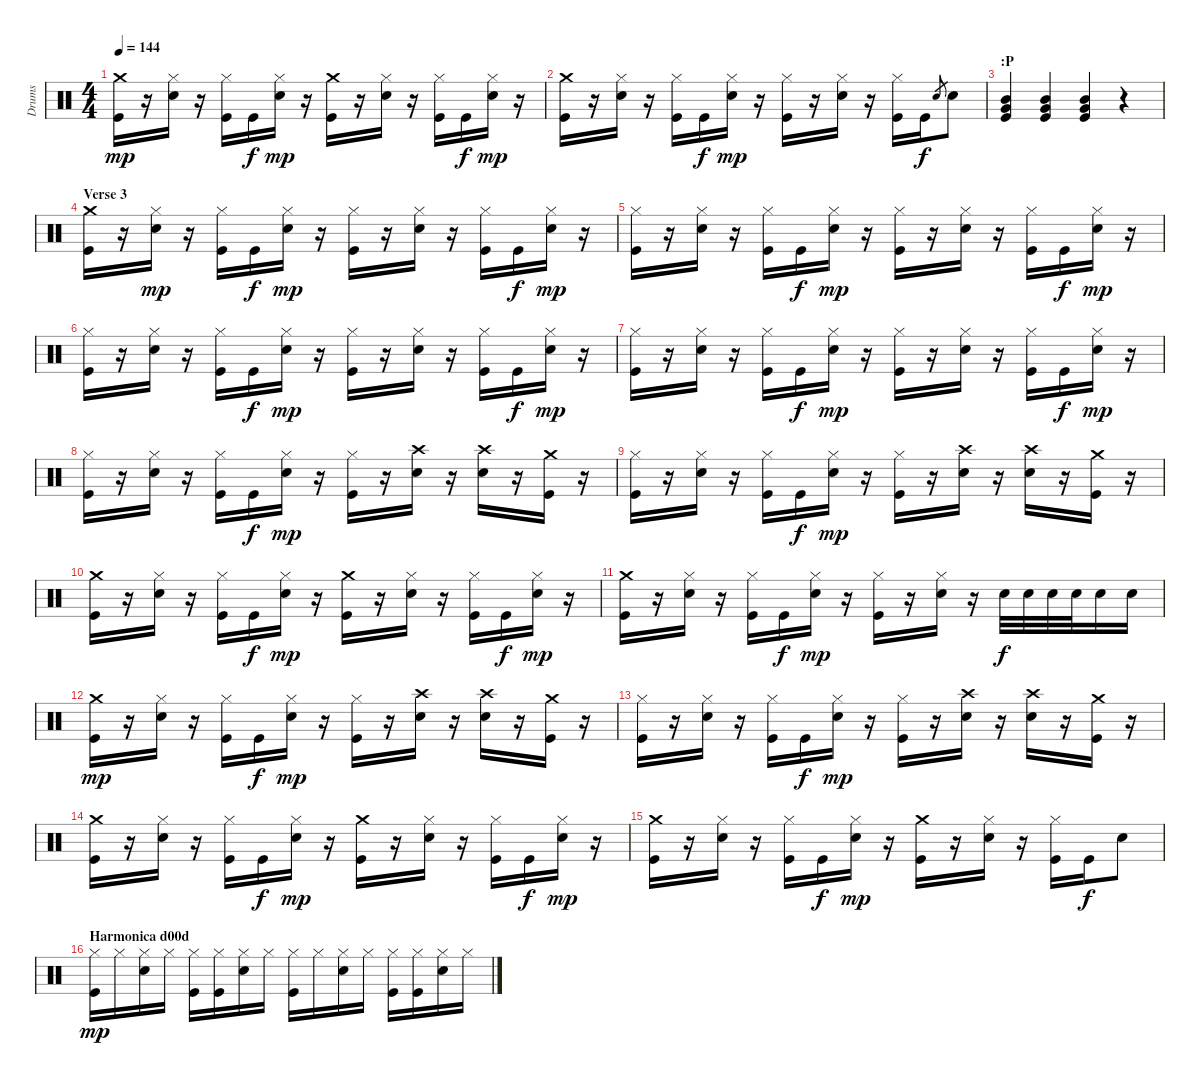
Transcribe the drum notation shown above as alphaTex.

\track ("Drums" "Drums") {instrument percussion}
\staff {score}
\articulation defaults
\ts (4 4)
\tempo 144
\clef neutral
\ks c
("Crash medium (hit)" "Kick (hit)").16{dy mp} r.16 ("Hi-Hat (closed)" "Electric Snare (hit)").16 r.16 ("Hi-Hat (closed)" "Kick (hit)").16 "Kick (hit)".16{dy f} ("Hi-Hat (closed)" "Electric Snare (hit)").16{dy mp} r.16 ("Crash medium (hit)" "Kick (hit)").16 r.16 ("Hi-Hat (closed)" "Electric Snare (hit)").16 r.16 ("Hi-Hat (closed)" "Kick (hit)").16 "Kick (hit)".16{dy f} ("Hi-Hat (closed)" "Electric Snare (hit)").16{dy mp} r.16 |
("Crash medium (hit)" "Kick (hit)").16 r.16 ("Hi-Hat (closed)" "Electric Snare (hit)").16 r.16 ("Hi-Hat (closed)" "Kick (hit)").16 "Kick (hit)".16{dy f} ("Hi-Hat (closed)" "Electric Snare (hit)").16{dy mp} r.16 ("Hi-Hat (closed)" "Kick (hit)").16 r.16 ("Hi-Hat (closed)" "Electric Snare (hit)").16 r.16 ("Hi-Hat (closed)" "Kick (hit)").16 "Kick (hit)".16{dy f} "Electric Snare (hit)".8{gr} "Electric Snare (hit)".8 |
\section ("" ":P")
("Mid Tom (hit)" "Very Low Tom (hit)" "Kick (hit)").4 ("Mid Tom (hit)" "Very Low Tom (hit)" "Kick (hit)").4 ("Mid Tom (hit)" "Very Low Tom (hit)" "Kick (hit)").4 r.4 |
\section ("" "Verse 3")
("Crash medium (hit)" "Kick (hit)").16 r.16 ("Hi-Hat (closed)" "Electric Snare (hit)").16{dy mp} r.16 ("Hi-Hat (closed)" "Kick (hit)").16 "Kick (hit)".16{dy f} ("Hi-Hat (closed)" "Electric Snare (hit)").16{dy mp} r.16 ("Hi-Hat (closed)" "Kick (hit)").16 r.16 ("Hi-Hat (closed)" "Electric Snare (hit)").16 r.16 ("Hi-Hat (closed)" "Kick (hit)").16 "Kick (hit)".16{dy f} ("Hi-Hat (closed)" "Electric Snare (hit)").16{dy mp} r.16 |
("Hi-Hat (closed)" "Kick (hit)").16 r.16 ("Hi-Hat (closed)" "Electric Snare (hit)").16 r.16 ("Hi-Hat (closed)" "Kick (hit)").16 "Kick (hit)".16{dy f} ("Hi-Hat (closed)" "Electric Snare (hit)").16{dy mp} r.16 ("Hi-Hat (closed)" "Kick (hit)").16 r.16 ("Hi-Hat (closed)" "Electric Snare (hit)").16 r.16 ("Hi-Hat (closed)" "Kick (hit)").16 "Kick (hit)".16{dy f} ("Hi-Hat (closed)" "Electric Snare (hit)").16{dy mp} r.16 |
("Hi-Hat (closed)" "Kick (hit)").16 r.16 ("Hi-Hat (closed)" "Electric Snare (hit)").16 r.16 ("Hi-Hat (closed)" "Kick (hit)").16 "Kick (hit)".16{dy f} ("Hi-Hat (closed)" "Electric Snare (hit)").16{dy mp} r.16 ("Hi-Hat (closed)" "Kick (hit)").16 r.16 ("Hi-Hat (closed)" "Electric Snare (hit)").16 r.16 ("Hi-Hat (closed)" "Kick (hit)").16 "Kick (hit)".16{dy f} ("Hi-Hat (closed)" "Electric Snare (hit)").16{dy mp} r.16 |
("Hi-Hat (closed)" "Kick (hit)").16 r.16 ("Hi-Hat (closed)" "Electric Snare (hit)").16 r.16 ("Hi-Hat (closed)" "Kick (hit)").16 "Kick (hit)".16{dy f} ("Hi-Hat (closed)" "Electric Snare (hit)").16{dy mp} r.16 ("Hi-Hat (closed)" "Kick (hit)").16 r.16 ("Hi-Hat (closed)" "Electric Snare (hit)").16 r.16 ("Hi-Hat (closed)" "Kick (hit)").16 "Kick (hit)".16{dy f} ("Hi-Hat (closed)" "Electric Snare (hit)").16{dy mp} r.16 |
("Hi-Hat (closed)" "Kick (hit)").16 r.16 ("Hi-Hat (closed)" "Electric Snare (hit)").16 r.16 ("Hi-Hat (closed)" "Kick (hit)").16 "Kick (hit)".16{dy f} ("Hi-Hat (closed)" "Electric Snare (hit)").16{dy mp} r.16 ("Hi-Hat (closed)" "Kick (hit)").16 r.16 ("Crash high (hit)" "Electric Snare (hit)").16 r.16 ("Crash high (hit)" "Electric Snare (hit)").16 r.16 ("Crash medium (hit)" "Kick (hit)").16 r.16 |
("Hi-Hat (closed)" "Kick (hit)").16 r.16 ("Hi-Hat (closed)" "Electric Snare (hit)").16 r.16 ("Hi-Hat (closed)" "Kick (hit)").16 "Kick (hit)".16{dy f} ("Hi-Hat (closed)" "Electric Snare (hit)").16{dy mp} r.16 ("Hi-Hat (closed)" "Kick (hit)").16 r.16 ("Crash high (hit)" "Electric Snare (hit)").16 r.16 ("Crash high (hit)" "Electric Snare (hit)").16 r.16 ("Crash medium (hit)" "Kick (hit)").16 r.16 |
("Crash medium (hit)" "Kick (hit)").16 r.16 ("Hi-Hat (closed)" "Electric Snare (hit)").16 r.16 ("Hi-Hat (closed)" "Kick (hit)").16 "Kick (hit)".16{dy f} ("Hi-Hat (closed)" "Electric Snare (hit)").16{dy mp} r.16 ("Crash medium (hit)" "Kick (hit)").16 r.16 ("Hi-Hat (closed)" "Electric Snare (hit)").16 r.16 ("Hi-Hat (closed)" "Kick (hit)").16 "Kick (hit)".16{dy f} ("Hi-Hat (closed)" "Electric Snare (hit)").16{dy mp} r.16 |
("Crash medium (hit)" "Kick (hit)").16 r.16 ("Hi-Hat (closed)" "Electric Snare (hit)").16 r.16 ("Hi-Hat (closed)" "Kick (hit)").16 "Kick (hit)".16{dy f} ("Hi-Hat (closed)" "Electric Snare (hit)").16{dy mp} r.16 ("Hi-Hat (closed)" "Kick (hit)").16 r.16 ("Hi-Hat (closed)" "Electric Snare (hit)").16 r.16 "Electric Snare (hit)".32{dy f} "Electric Snare (hit)".32 "Electric Snare (hit)".32 "Electric Snare (hit)".32 "Electric Snare (hit)".16 "Electric Snare (hit)".16 |
("Crash medium (hit)" "Kick (hit)").16{dy mp} r.16 ("Hi-Hat (closed)" "Electric Snare (hit)").16 r.16 ("Hi-Hat (closed)" "Kick (hit)").16 "Kick (hit)".16{dy f} ("Hi-Hat (closed)" "Electric Snare (hit)").16{dy mp} r.16 ("Hi-Hat (closed)" "Kick (hit)").16 r.16 ("Crash high (hit)" "Electric Snare (hit)").16 r.16 ("Crash high (hit)" "Electric Snare (hit)").16 r.16 ("Crash medium (hit)" "Kick (hit)").16 r.16 |
("Hi-Hat (closed)" "Kick (hit)").16 r.16 ("Hi-Hat (closed)" "Electric Snare (hit)").16 r.16 ("Hi-Hat (closed)" "Kick (hit)").16 "Kick (hit)".16{dy f} ("Hi-Hat (closed)" "Electric Snare (hit)").16{dy mp} r.16 ("Hi-Hat (closed)" "Kick (hit)").16 r.16 ("Crash high (hit)" "Electric Snare (hit)").16 r.16 ("Crash high (hit)" "Electric Snare (hit)").16 r.16 ("Crash medium (hit)" "Kick (hit)").16 r.16 |
("Crash medium (hit)" "Kick (hit)").16 r.16 ("Hi-Hat (closed)" "Electric Snare (hit)").16 r.16 ("Hi-Hat (closed)" "Kick (hit)").16 "Kick (hit)".16{dy f} ("Hi-Hat (closed)" "Electric Snare (hit)").16{dy mp} r.16 ("Crash medium (hit)" "Kick (hit)").16 r.16 ("Hi-Hat (closed)" "Electric Snare (hit)").16 r.16 ("Hi-Hat (closed)" "Kick (hit)").16 "Kick (hit)".16{dy f} ("Hi-Hat (closed)" "Electric Snare (hit)").16{dy mp} r.16 |
("Crash medium (hit)" "Kick (hit)").16 r.16 ("Hi-Hat (closed)" "Electric Snare (hit)").16 r.16 ("Hi-Hat (closed)" "Kick (hit)").16 "Kick (hit)".16{dy f} ("Hi-Hat (closed)" "Electric Snare (hit)").16{dy mp} r.16 ("Crash medium (hit)" "Kick (hit)").16 r.16 ("Hi-Hat (closed)" "Electric Snare (hit)").16 r.16 ("Hi-Hat (closed)" "Kick (hit)").16 "Kick (hit)".16{dy f} "Electric Snare (hit)"{tr (40 64)}.8 |
\section ("" "Harmonica d00d")
("Hi-Hat (closed)" "Kick (hit)").16{dy mp} "Hi-Hat (closed)".16 ("Hi-Hat (closed)" "Electric Snare (hit)").16 "Hi-Hat (closed)".16 ("Hi-Hat (closed)" "Kick (hit)").16 ("Hi-Hat (closed)" "Kick (hit)").16 ("Hi-Hat (closed)" "Electric Snare (hit)").16 "Hi-Hat (closed)".16 ("Hi-Hat (closed)" "Kick (hit)").16 "Hi-Hat (closed)".16 ("Hi-Hat (closed)" "Electric Snare (hit)").16 "Hi-Hat (closed)".16 ("Hi-Hat (closed)" "Kick (hit)").16 ("Hi-Hat (closed)" "Kick (hit)").16 ("Hi-Hat (closed)" "Electric Snare (hit)").16 "Hi-Hat (closed)".16
